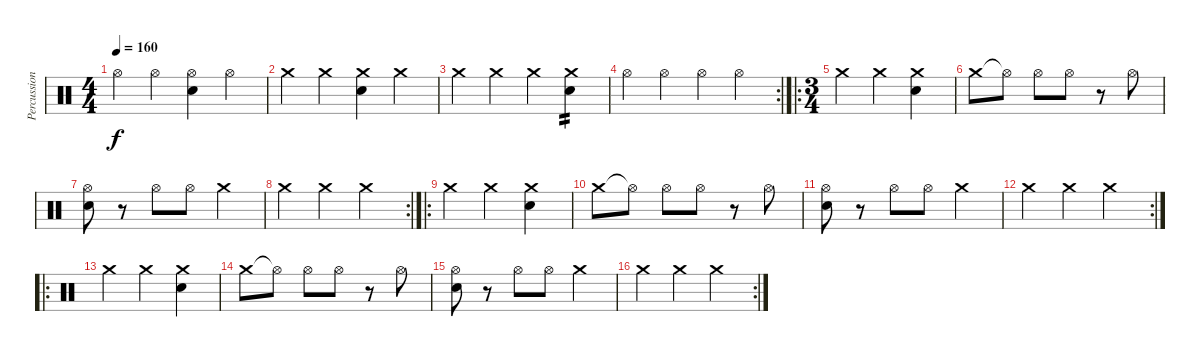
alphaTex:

\track ("Percussion" "Percussion") {instrument percussion}
\staff {score}
\articulation defaults
\ts (4 4)
\tempo 160
\clef neutral
\ks c "Hi-Hat (open)".4{dy f} "Hi-Hat (open)".4
("Hi-Hat (open)" "Snare (hit) 2").4 "Hi-Hat (open)".4 |
"Crash medium (hit)".4 "Crash medium (hit)".4 ("Crash medium (hit)" "Snare (hit) 2").4 "Crash medium (hit)".4 |
"Crash medium (hit)".4 "Crash medium (hit)".4 "Crash medium (hit)".4 ("Crash medium (hit)" "Snare (hit) 2").4{tp 2} |
\rc 2 "Hi-Hat (open)".4 "Hi-Hat (open)".4 "Hi-Hat (open)".4 "Hi-Hat (open)".4
|
\ro
\ts (3 4)
"Crash medium (hit)".4 "Crash medium (hit)".4 ("Crash medium (hit)" "Snare (hit) 2").4 |
"Crash medium (hit)".8 "Hi-Hat (open)"{t}.8 "Hi-Hat (open)".8 "Hi-Hat (open)".8 r.8 "Hi-Hat (open)".8 |
("Hi-Hat (open)" "Snare (hit) 2").8 r.8 "Hi-Hat (open)".8 "Hi-Hat (open)".8 "Crash medium (hit)".4 |
\rc 2 "Crash medium (hit)".4 "Crash medium (hit)".4 "Crash medium (hit)".4
|
\ro "Crash medium (hit)".4 "Crash medium (hit)".4
("Crash medium (hit)" "Snare (hit) 2").4 |
"Crash medium (hit)".8 "Hi-Hat (open)"{t}.8 "Hi-Hat (open)".8 "Hi-Hat (open)".8 r.8 "Hi-Hat (open)".8 |
("Hi-Hat (open)" "Snare (hit) 2").8 r.8 "Hi-Hat (open)".8 "Hi-Hat (open)".8 "Crash medium (hit)".4 |
\rc 2 "Crash medium (hit)".4 "Crash medium (hit)".4 "Crash medium (hit)".4
|
\ro "Crash medium (hit)".4 "Crash medium (hit)".4
("Crash medium (hit)" "Snare (hit) 2").4 |
"Crash medium (hit)".8 "Hi-Hat (open)"{t}.8 "Hi-Hat (open)".8 "Hi-Hat (open)".8 r.8 "Hi-Hat (open)".8 |
("Hi-Hat (open)" "Snare (hit) 2").8 r.8 "Hi-Hat (open)".8 "Hi-Hat (open)".8 "Crash medium (hit)".4 |
\rc 2 "Crash medium (hit)".4 "Crash medium (hit)".4 "Crash medium (hit)".4
